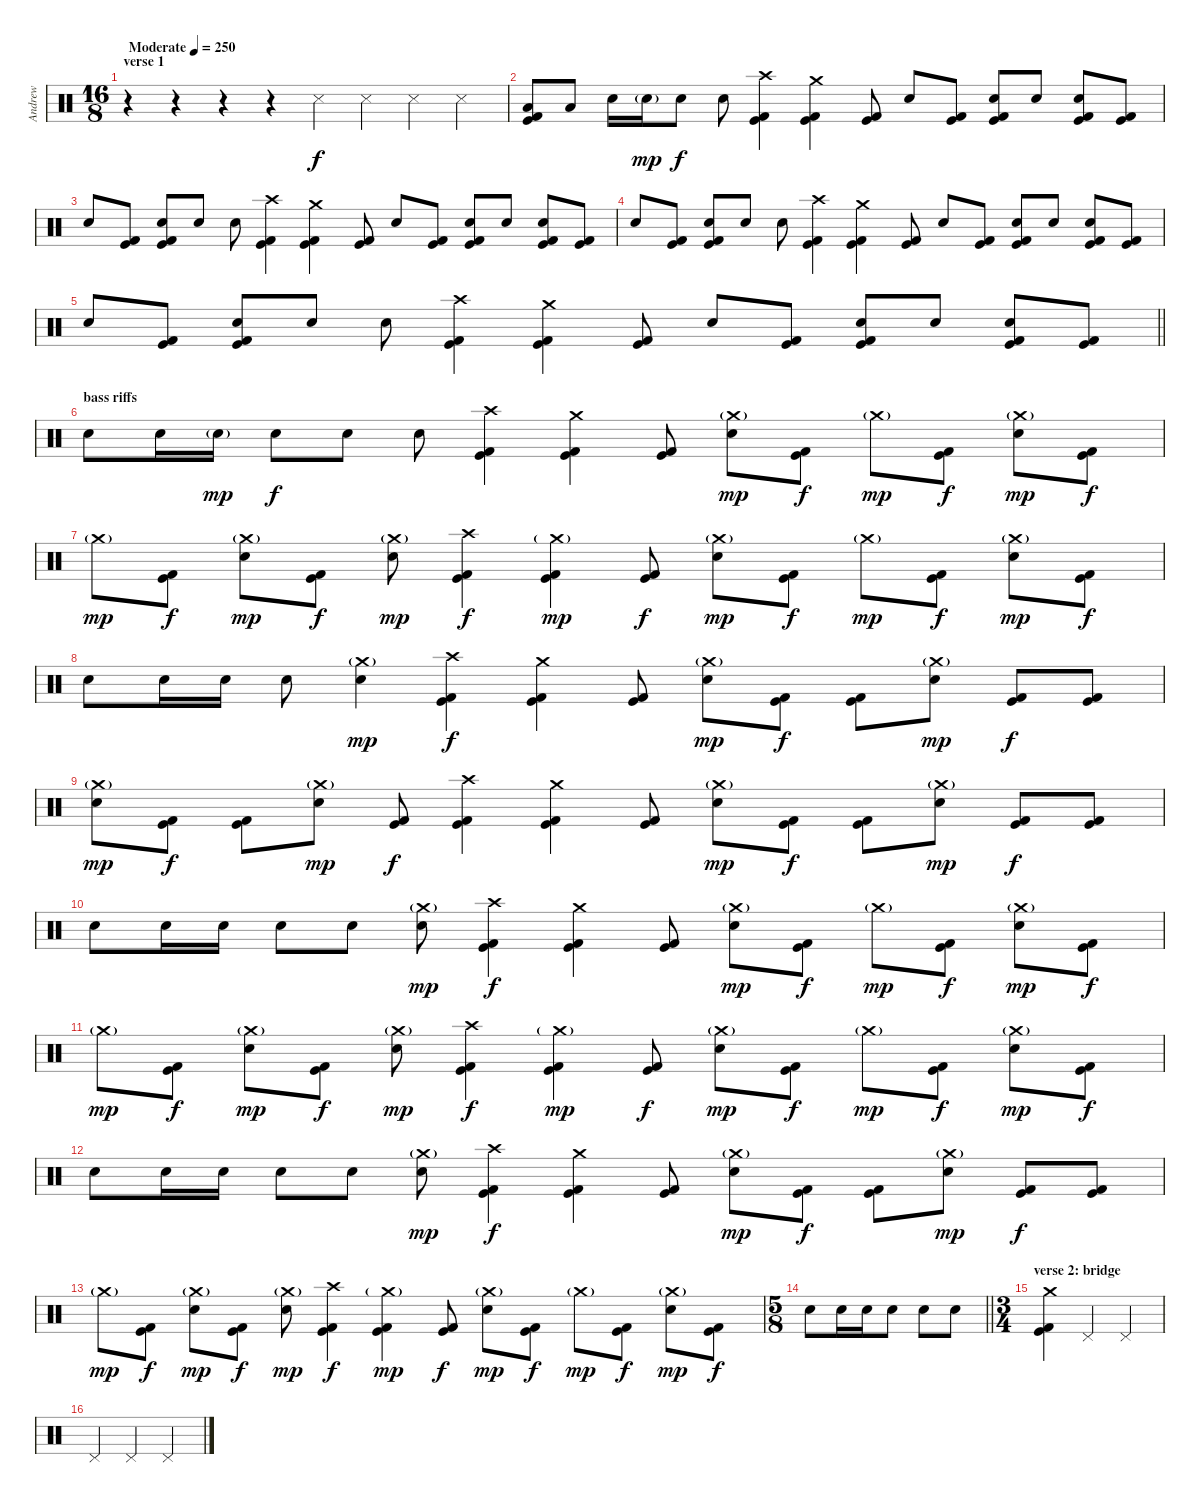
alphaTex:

\track ("Andrew" "Andrew") {instrument percussion}
\staff {score}
\articulation defaults
\ts (16 8)
\section ("" "verse 1")
\tempo (250 "Moderate")
\clef neutral
\ks c
r.4{dy f} r.4 r.4 r.4 "Snare (side stick) 3".4 "Snare (side stick) 3".4 "Snare (side stick) 3".4 "Snare (side stick) 3".4 |
("Low Tom (hit)" "Kick (hit)" "Kick (hit) 2").8 "Low Tom (hit)".8 "Snare (hit) 2".16 "Snare (hit) 2"{g}.16{dy mp} "Snare (hit) 2".8{dy f} "Snare (hit) 2".8 ("Crash high (hit)" "Kick (hit)" "Kick (hit) 2").4 ("Crash medium (hit)" "Kick (hit)" "Kick (hit) 2").4 ("Kick (hit)" "Kick (hit) 2").8 "Snare (hit) 2".8 ("Kick (hit)" "Kick (hit) 2").8 ("Snare (hit) 2" "Kick (hit)" "Kick (hit) 2").8 "Snare (hit) 2".8 ("Snare (hit) 2" "Kick (hit)" "Kick (hit) 2").8 ("Kick (hit)" "Kick (hit) 2").8 |
"Snare (hit) 2".8 ("Kick (hit)" "Kick (hit) 2").8 ("Snare (hit) 2" "Kick (hit)" "Kick (hit) 2").8 "Snare (hit) 2".8 "Snare (hit) 2".8 ("Crash high (hit)" "Kick (hit)" "Kick (hit) 2").4 ("Crash medium (hit)" "Kick (hit)" "Kick (hit) 2").4 ("Kick (hit)" "Kick (hit) 2").8 "Snare (hit) 2".8 ("Kick (hit)" "Kick (hit) 2").8 ("Snare (hit) 2" "Kick (hit)" "Kick (hit) 2").8 "Snare (hit) 2".8 ("Snare (hit) 2" "Kick (hit)" "Kick (hit) 2").8 ("Kick (hit)" "Kick (hit) 2").8 |
"Snare (hit) 2".8 ("Kick (hit)" "Kick (hit) 2").8 ("Snare (hit) 2" "Kick (hit)" "Kick (hit) 2").8 "Snare (hit) 2".8 "Snare (hit) 2".8 ("Crash high (hit)" "Kick (hit)" "Kick (hit) 2").4 ("Crash medium (hit)" "Kick (hit)" "Kick (hit) 2").4 ("Kick (hit)" "Kick (hit) 2").8 "Snare (hit) 2".8 ("Kick (hit)" "Kick (hit) 2").8 ("Snare (hit) 2" "Kick (hit)" "Kick (hit) 2").8 "Snare (hit) 2".8 ("Snare (hit) 2" "Kick (hit)" "Kick (hit) 2").8 ("Kick (hit)" "Kick (hit) 2").8 |
\barLineRight lightlight "Snare (hit) 2".8
("Kick (hit)" "Kick (hit) 2").8 ("Snare (hit) 2" "Kick (hit)" "Kick (hit) 2").8 "Snare (hit) 2".8 "Snare (hit) 2".8 ("Crash high (hit)" "Kick (hit)" "Kick (hit) 2").4 ("Crash medium (hit)" "Kick (hit)" "Kick (hit) 2").4 ("Kick (hit)" "Kick (hit) 2").8 "Snare (hit) 2".8 ("Kick (hit)" "Kick (hit) 2").8 ("Snare (hit) 2" "Kick (hit)" "Kick (hit) 2").8 "Snare (hit) 2".8 ("Snare (hit) 2" "Kick (hit)" "Kick (hit) 2").8 ("Kick (hit)" "Kick (hit) 2").8 |
\section ("" "bass riffs")
"Snare (hit) 2".8 "Snare (hit) 2".16 "Snare (hit) 2"{g}.16{dy mp} "Snare (hit) 2".8{dy f} "Snare (hit) 2".8 "Snare (hit) 2".8 ("Crash high (hit)" "Kick (hit)" "Kick (hit) 2").4 ("Crash medium (hit)" "Kick (hit)" "Kick (hit) 2").4 ("Kick (hit)" "Kick (hit) 2").8 ("Crash medium (hit)"{g} "Snare (hit) 2").8{dy mp} ("Kick (hit)" "Kick (hit) 2").8{dy f} "Crash medium (hit)"{g}.8{dy mp} ("Kick (hit)" "Kick (hit) 2").8{dy f} ("Crash medium (hit)"{g} "Snare (hit) 2").8{dy mp} ("Kick (hit)" "Kick (hit) 2").8{dy f} |
"Crash medium (hit)"{g}.8{dy mp} ("Kick (hit)" "Kick (hit) 2").8{dy f} ("Crash medium (hit)"{g} "Snare (hit) 2").8{dy mp} ("Kick (hit)" "Kick (hit) 2").8{dy f} ("Crash medium (hit)"{g} "Snare (hit) 2").8{dy mp} ("Crash high (hit)" "Kick (hit)" "Kick (hit) 2").4{dy f} ("Crash medium (hit)"{g} "Kick (hit)" "Kick (hit) 2").4{dy mp} ("Kick (hit)" "Kick (hit) 2").8{dy f} ("Crash medium (hit)"{g} "Snare (hit) 2").8{dy mp} ("Kick (hit)" "Kick (hit) 2").8{dy f} "Crash medium (hit)"{g}.8{dy mp} ("Kick (hit)" "Kick (hit) 2").8{dy f} ("Crash medium (hit)"{g} "Snare (hit) 2").8{dy mp} ("Kick (hit)" "Kick (hit) 2").8{dy f} |
"Snare (hit) 2".8 "Snare (hit) 2".16 "Snare (hit) 2".16 "Snare (hit) 2".8 ("Crash medium (hit)"{g} "Snare (hit) 2").4{dy mp} ("Crash high (hit)" "Kick (hit)" "Kick (hit) 2").4{dy f} ("Crash medium (hit)" "Kick (hit)" "Kick (hit) 2").4 ("Kick (hit)" "Kick (hit) 2").8 ("Crash medium (hit)"{g} "Snare (hit) 2").8{dy mp} ("Kick (hit)" "Kick (hit) 2").8{dy f} ("Kick (hit)" "Kick (hit) 2").8 ("Crash medium (hit)"{g} "Snare (hit) 2").8{dy mp} ("Kick (hit)" "Kick (hit) 2").8{dy f} ("Kick (hit)" "Kick (hit) 2").8 |
("Crash medium (hit)"{g} "Snare (hit) 2").8{dy mp} ("Kick (hit)" "Kick (hit) 2").8{dy f} ("Kick (hit)" "Kick (hit) 2").8 ("Crash medium (hit)"{g} "Snare (hit) 2").8{dy mp} ("Kick (hit)" "Kick (hit) 2").8{dy f} ("Crash high (hit)" "Kick (hit)" "Kick (hit) 2").4 ("Crash medium (hit)" "Kick (hit)" "Kick (hit) 2").4 ("Kick (hit)" "Kick (hit) 2").8 ("Crash medium (hit)"{g} "Snare (hit) 2").8{dy mp} ("Kick (hit)" "Kick (hit) 2").8{dy f} ("Kick (hit)" "Kick (hit) 2").8 ("Crash medium (hit)"{g} "Snare (hit) 2").8{dy mp} ("Kick (hit)" "Kick (hit) 2").8{dy f} ("Kick (hit) 2" "Kick (hit)").8 |
"Snare (hit) 2".8 "Snare (hit) 2".16 "Snare (hit) 2".16 "Snare (hit) 2".8 "Snare (hit) 2".8 ("Crash medium (hit)"{g} "Snare (hit) 2").8{dy mp} ("Crash high (hit)" "Kick (hit)" "Kick (hit) 2").4{dy f} ("Crash medium (hit)" "Kick (hit)" "Kick (hit) 2").4 ("Kick (hit)" "Kick (hit) 2").8 ("Crash medium (hit)"{g} "Snare (hit) 2").8{dy mp} ("Kick (hit)" "Kick (hit) 2").8{dy f} "Crash medium (hit)"{g}.8{dy mp} ("Kick (hit)" "Kick (hit) 2").8{dy f} ("Crash medium (hit)"{g} "Snare (hit) 2").8{dy mp} ("Kick (hit)" "Kick (hit) 2").8{dy f} |
"Crash medium (hit)"{g}.8{dy mp} ("Kick (hit)" "Kick (hit) 2").8{dy f} ("Crash medium (hit)"{g} "Snare (hit) 2").8{dy mp} ("Kick (hit)" "Kick (hit) 2").8{dy f} ("Crash medium (hit)"{g} "Snare (hit) 2").8{dy mp} ("Crash high (hit)" "Kick (hit)" "Kick (hit) 2").4{dy f} ("Crash medium (hit)"{g} "Kick (hit)" "Kick (hit) 2").4{dy mp} ("Kick (hit)" "Kick (hit) 2").8{dy f} ("Crash medium (hit)"{g} "Snare (hit) 2").8{dy mp} ("Kick (hit)" "Kick (hit) 2").8{dy f} "Crash medium (hit)"{g}.8{dy mp} ("Kick (hit)" "Kick (hit) 2").8{dy f} ("Crash medium (hit)"{g} "Snare (hit) 2").8{dy mp} ("Kick (hit)" "Kick (hit) 2").8{dy f} |
"Snare (hit) 2".8 "Snare (hit) 2".16 "Snare (hit) 2".16 "Snare (hit) 2".8 "Snare (hit) 2".8 ("Crash medium (hit)"{g} "Snare (hit) 2").8{dy mp} ("Crash high (hit)" "Kick (hit)" "Kick (hit) 2").4{dy f} ("Crash medium (hit)" "Kick (hit)" "Kick (hit) 2").4 ("Kick (hit)" "Kick (hit) 2").8 ("Crash medium (hit)"{g} "Snare (hit) 2").8{dy mp} ("Kick (hit)" "Kick (hit) 2").8{dy f} ("Kick (hit)" "Kick (hit) 2").8 ("Crash medium (hit)"{g} "Snare (hit) 2").8{dy mp} ("Kick (hit)" "Kick (hit) 2").8{dy f} ("Kick (hit)" "Kick (hit) 2").8 |
"Crash medium (hit)"{g}.8{dy mp} ("Kick (hit)" "Kick (hit) 2").8{dy f} ("Crash medium (hit)"{g} "Snare (hit) 2").8{dy mp} ("Kick (hit)" "Kick (hit) 2").8{dy f} ("Crash medium (hit)"{g} "Snare (hit) 2").8{dy mp} ("Crash high (hit)" "Kick (hit)" "Kick (hit) 2").4{dy f} ("Crash medium (hit)"{g} "Kick (hit)" "Kick (hit) 2").4{dy mp} ("Kick (hit)" "Kick (hit) 2").8{dy f} ("Crash medium (hit)"{g} "Snare (hit) 2").8{dy mp} ("Kick (hit)" "Kick (hit) 2").8{dy f} "Crash medium (hit)"{g}.8{dy mp} ("Kick (hit)" "Kick (hit) 2").8{dy f} ("Crash medium (hit)"{g} "Snare (hit) 2").8{dy mp} ("Kick (hit)" "Kick (hit) 2").8{dy f} |
\ts (5 8)
\barLineRight lightlight "Snare (hit) 2".8 "Snare (hit) 2".16 "Snare (hit) 2".16 "Snare (hit) 2".8 "Snare (hit) 2".8 "Snare (hit) 2".8
|
\ts (3 4)
\section ("" "verse 2: bridge")
("Crash medium (hit)" "Kick (hit)" "Kick (hit) 2").4 "Pedal Hi-Hat (hit)".4 "Pedal Hi-Hat (hit)".4 |
"Pedal Hi-Hat (hit)".4 "Pedal Hi-Hat (hit)".4 "Pedal Hi-Hat (hit)".4
